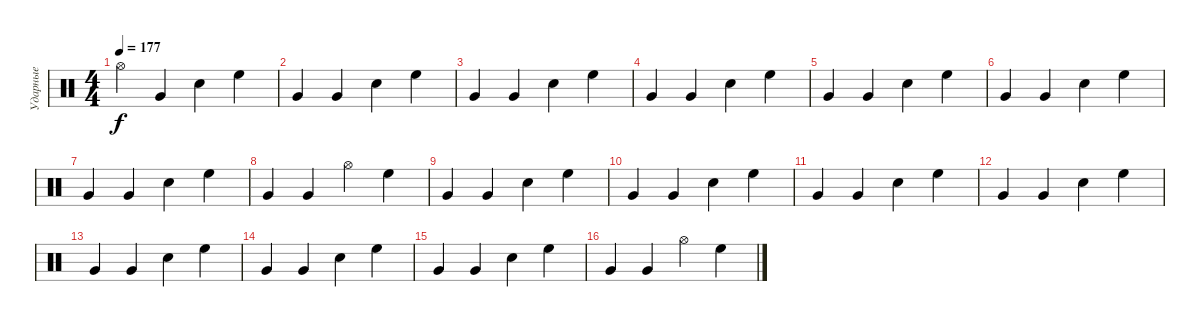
\track ("Ударные" "Ударные") {instrument percussion}
\staff {score}
\articulation defaults
\ts (4 4)
\tempo 177
\clef neutral
\ks c "Hi-Hat (open)".4{dy f} "Very Low Tom (hit)".4 "Electric Snare (hit)".4 "High Floor Tom (hit)".4
|
"Very Low Tom (hit)".4 "Very Low Tom (hit)".4 "Electric Snare (hit)".4 "High Floor Tom (hit)".4 |
"Very Low Tom (hit)".4 "Very Low Tom (hit)".4 "Electric Snare (hit)".4 "High Floor Tom (hit)".4 |
"Very Low Tom (hit)".4 "Very Low Tom (hit)".4 "Electric Snare (hit)".4 "High Floor Tom (hit)".4 |
"Very Low Tom (hit)".4 "Very Low Tom (hit)".4 "Electric Snare (hit)".4 "High Floor Tom (hit)".4 |
"Very Low Tom (hit)".4 "Very Low Tom (hit)".4 "Electric Snare (hit)".4 "High Floor Tom (hit)".4 |
"Very Low Tom (hit)".4 "Very Low Tom (hit)".4 "Electric Snare (hit)".4 "High Floor Tom (hit)".4 |
"Very Low Tom (hit)".4 "Very Low Tom (hit)".4 "Hi-Hat (open)".4 "High Floor Tom (hit)".4 |
"Very Low Tom (hit)".4 "Very Low Tom (hit)".4 "Electric Snare (hit)".4 "High Floor Tom (hit)".4 |
"Very Low Tom (hit)".4 "Very Low Tom (hit)".4 "Electric Snare (hit)".4 "High Floor Tom (hit)".4 |
"Very Low Tom (hit)".4 "Very Low Tom (hit)".4 "Electric Snare (hit)".4 "High Floor Tom (hit)".4 |
"Very Low Tom (hit)".4 "Very Low Tom (hit)".4 "Electric Snare (hit)".4 "High Floor Tom (hit)".4 |
"Very Low Tom (hit)".4 "Very Low Tom (hit)".4 "Electric Snare (hit)".4 "High Floor Tom (hit)".4 |
"Very Low Tom (hit)".4 "Very Low Tom (hit)".4 "Electric Snare (hit)".4 "High Floor Tom (hit)".4 |
"Very Low Tom (hit)".4 "Very Low Tom (hit)".4 "Electric Snare (hit)".4 "High Floor Tom (hit)".4 |
"Very Low Tom (hit)".4 "Very Low Tom (hit)".4 "Hi-Hat (open)".4 "High Floor Tom (hit)".4
